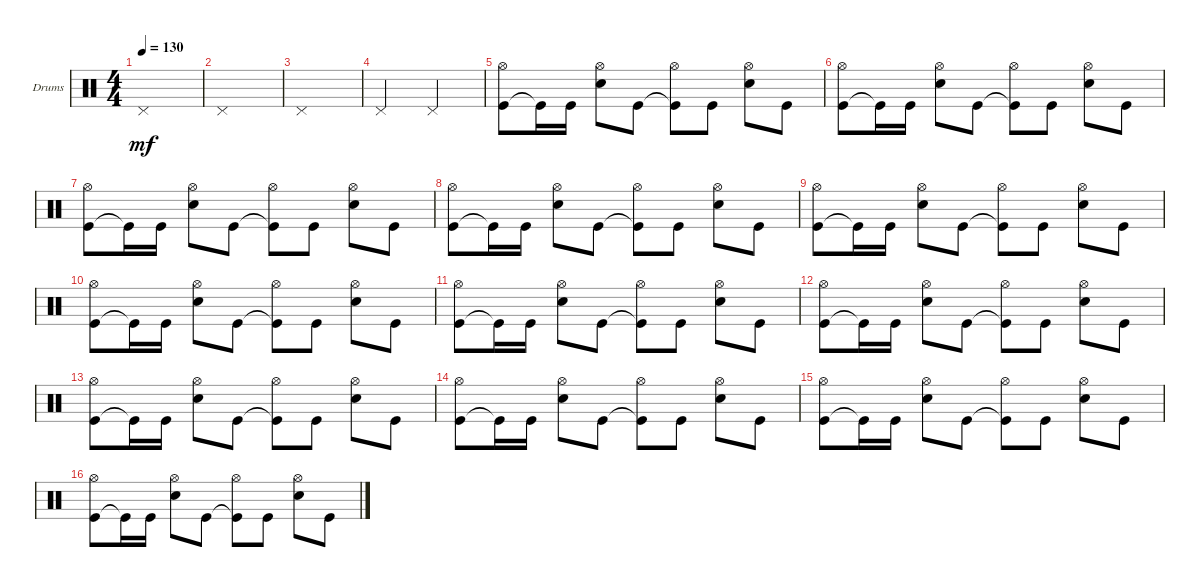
\bracketExtendMode groupsimilarinstruments
\firstSystemTrackNameOrientation horizontal
\otherSystemsTrackNameOrientation horizontal
\track ("Emile Bardou" "Drums") {instrument percussion}
\staff {score}
\articulation defaults
\ts (4 4)
\tempo 130
\clef neutral
\scale
0.333333
\ks c "Pedal Hi-Hat (hit)".1{dy mf}
|
\scale
0.333333 "Pedal Hi-Hat (hit)".1 |
\scale
0.333333 "Pedal Hi-Hat (hit)".1 |
\scale
0.333333 "Pedal Hi-Hat (hit)".2 "Pedal Hi-Hat (hit)".2 |
\scale
0.333333 ("Kick (hit)" "Hi-Hat (open)").8 "Kick (hit)"{t}.16 "Kick (hit)".16 ("Hi-Hat (open)" "Snare (hit) 2").8 "Kick (hit)".8 ("Kick (hit)"{t} "Hi-Hat (open)").8 "Kick (hit)".8 ("Hi-Hat (open)" "Snare (hit) 2").8 "Kick (hit)".8 |
\scale
0.333333 ("Kick (hit)" "Hi-Hat (open)").8 "Kick (hit)"{t}.16 "Kick (hit)".16 ("Hi-Hat (open)" "Snare (hit) 2").8 "Kick (hit)".8 ("Kick (hit)"{t} "Hi-Hat (open)").8 "Kick (hit)".8 ("Hi-Hat (open)" "Snare (hit) 2").8 "Kick (hit)".8 |
\scale
0.333333 ("Kick (hit)" "Hi-Hat (open)").8 "Kick (hit)"{t}.16 "Kick (hit)".16 ("Hi-Hat (open)" "Snare (hit) 2").8 "Kick (hit)".8 ("Kick (hit)"{t} "Hi-Hat (open)").8 "Kick (hit)".8 ("Hi-Hat (open)" "Snare (hit) 2").8 "Kick (hit)".8 |
\scale
0.333333 ("Kick (hit)" "Hi-Hat (open)").8 "Kick (hit)"{t}.16 "Kick (hit)".16 ("Hi-Hat (open)" "Snare (hit) 2").8 "Kick (hit)".8 ("Kick (hit)"{t} "Hi-Hat (open)").8 "Kick (hit)".8 ("Hi-Hat (open)" "Snare (hit) 2").8 "Kick (hit)".8 |
\scale
0.333333 ("Kick (hit)" "Hi-Hat (open)").8 "Kick (hit)"{t}.16 "Kick (hit)".16 ("Hi-Hat (open)" "Snare (hit) 2").8 "Kick (hit)".8 ("Kick (hit)"{t} "Hi-Hat (open)").8 "Kick (hit)".8 ("Hi-Hat (open)" "Snare (hit) 2").8 "Kick (hit)".8 |
\scale
0.333333 ("Kick (hit)" "Hi-Hat (open)").8 "Kick (hit)"{t}.16 "Kick (hit)".16 ("Hi-Hat (open)" "Snare (hit) 2").8 "Kick (hit)".8 ("Kick (hit)"{t} "Hi-Hat (open)").8 "Kick (hit)".8 ("Hi-Hat (open)" "Snare (hit) 2").8 "Kick (hit)".8 |
\scale
0.333333 ("Kick (hit)" "Hi-Hat (open)").8 "Kick (hit)"{t}.16 "Kick (hit)".16 ("Hi-Hat (open)" "Snare (hit) 2").8 "Kick (hit)".8 ("Kick (hit)"{t} "Hi-Hat (open)").8 "Kick (hit)".8 ("Hi-Hat (open)" "Snare (hit) 2").8 "Kick (hit)".8 |
\scale
0.333333 ("Kick (hit)" "Hi-Hat (open)").8 "Kick (hit)"{t}.16 "Kick (hit)".16 ("Hi-Hat (open)" "Snare (hit) 2").8 "Kick (hit)".8 ("Kick (hit)"{t} "Hi-Hat (open)").8 "Kick (hit)".8 ("Hi-Hat (open)" "Snare (hit) 2").8 "Kick (hit)".8 |
\scale
0.333333 ("Kick (hit)" "Hi-Hat (open)").8 "Kick (hit)"{t}.16 "Kick (hit)".16 ("Hi-Hat (open)" "Snare (hit) 2").8 "Kick (hit)".8 ("Kick (hit)"{t} "Hi-Hat (open)").8 "Kick (hit)".8 ("Hi-Hat (open)" "Snare (hit) 2").8 "Kick (hit)".8 |
\scale
0.333333 ("Kick (hit)" "Hi-Hat (open)").8 "Kick (hit)"{t}.16 "Kick (hit)".16 ("Hi-Hat (open)" "Snare (hit) 2").8 "Kick (hit)".8 ("Kick (hit)"{t} "Hi-Hat (open)").8 "Kick (hit)".8 ("Hi-Hat (open)" "Snare (hit) 2").8 "Kick (hit)".8 |
\scale
0.333333 ("Kick (hit)" "Hi-Hat (open)").8 "Kick (hit)"{t}.16 "Kick (hit)".16 ("Hi-Hat (open)" "Snare (hit) 2").8 "Kick (hit)".8 ("Kick (hit)"{t} "Hi-Hat (open)").8 "Kick (hit)".8 ("Hi-Hat (open)" "Snare (hit) 2").8 "Kick (hit)".8 |
\scale
0.333333 ("Kick (hit)" "Hi-Hat (open)").8 "Kick (hit)"{t}.16 "Kick (hit)".16 ("Hi-Hat (open)" "Snare (hit) 2").8 "Kick (hit)".8 ("Kick (hit)"{t} "Hi-Hat (open)").8 "Kick (hit)".8 ("Hi-Hat (open)" "Snare (hit) 2").8 "Kick (hit)".8
